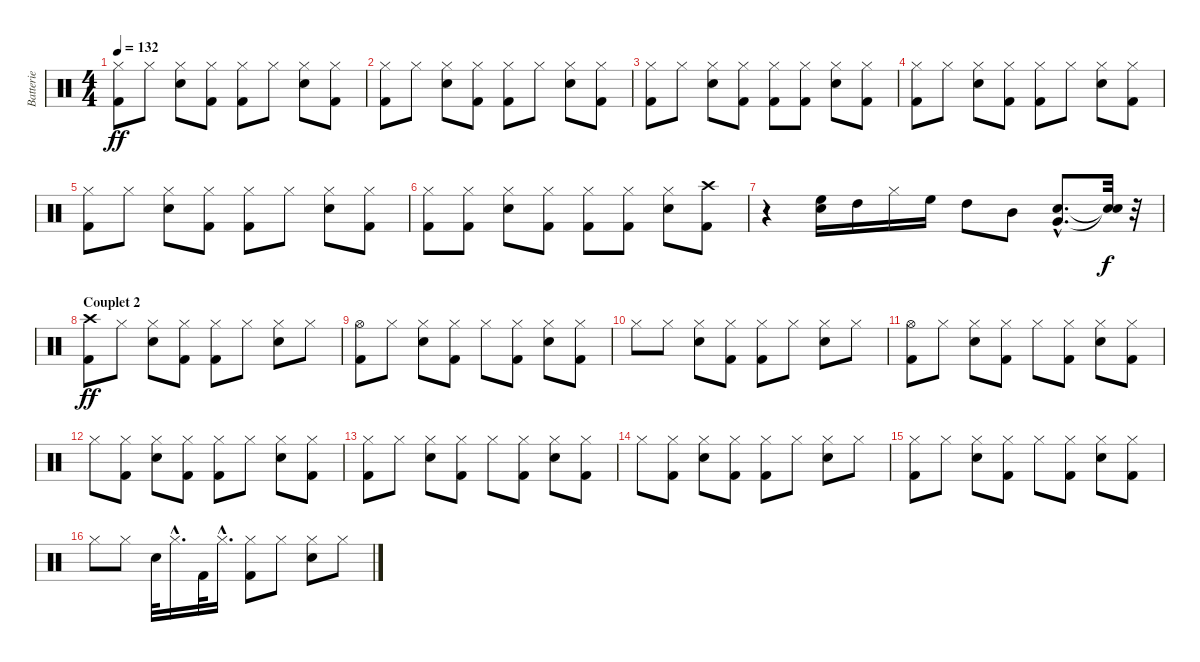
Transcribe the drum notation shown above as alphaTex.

\track ("Batterie" "Batterie") {instrument percussion}
\staff {score}
\articulation defaults
\ts (4 4)
\tempo 132
\clef neutral
\ks c
("Kick (hit) 2" "Hi-Hat (closed)").8{dy ff} "Hi-Hat (closed)".8 ("Snare (hit) 2" "Hi-Hat (closed)").8 ("Kick (hit) 2" "Hi-Hat (closed)").8 ("Kick (hit) 2" "Hi-Hat (closed)").8 "Hi-Hat (closed)".8 ("Snare (hit) 2" "Hi-Hat (closed)").8 ("Kick (hit) 2" "Hi-Hat (closed)").8 |
("Kick (hit) 2" "Hi-Hat (closed)").8 "Hi-Hat (closed)".8 ("Snare (hit) 2" "Hi-Hat (closed)").8 ("Kick (hit) 2" "Hi-Hat (closed)").8 ("Kick (hit) 2" "Hi-Hat (closed)").8 "Hi-Hat (closed)".8 ("Snare (hit) 2" "Hi-Hat (closed)").8 ("Kick (hit) 2" "Hi-Hat (closed)").8 |
("Kick (hit) 2" "Hi-Hat (closed)").8 "Hi-Hat (closed)".8 ("Snare (hit) 2" "Hi-Hat (closed)").8 ("Kick (hit) 2" "Hi-Hat (closed)").8 ("Kick (hit) 2" "Hi-Hat (closed)").8 ("Kick (hit) 2" "Hi-Hat (closed)").8 ("Snare (hit) 2" "Hi-Hat (closed)").8 ("Kick (hit) 2" "Hi-Hat (closed)").8 |
("Kick (hit) 2" "Hi-Hat (closed)").8 "Hi-Hat (closed)".8 ("Snare (hit) 2" "Hi-Hat (closed)").8 ("Kick (hit) 2" "Hi-Hat (closed)").8 ("Kick (hit) 2" "Hi-Hat (closed)").8 "Hi-Hat (closed)".8 ("Snare (hit) 2" "Hi-Hat (closed)").8 ("Kick (hit) 2" "Hi-Hat (closed)").8 |
("Kick (hit) 2" "Hi-Hat (closed)").8 "Hi-Hat (closed)".8 ("Snare (hit) 2" "Hi-Hat (closed)").8 ("Kick (hit) 2" "Hi-Hat (closed)").8 ("Kick (hit) 2" "Hi-Hat (closed)").8 "Hi-Hat (closed)".8 ("Snare (hit) 2" "Hi-Hat (closed)").8 ("Kick (hit) 2" "Hi-Hat (closed)").8 |
("Kick (hit) 2" "Hi-Hat (closed)").8 ("Kick (hit) 2" "Hi-Hat (closed)").8 ("Snare (hit) 2" "Hi-Hat (closed)").8 ("Kick (hit) 2" "Hi-Hat (closed)").8 ("Kick (hit) 2" "Hi-Hat (closed)").8 ("Kick (hit) 2" "Hi-Hat (closed)").8 ("Snare (hit) 2" "Hi-Hat (closed)").8 ("Kick (hit) 2" "Crash high (hit)").8 |
r.4 ("Snare (hit) 2" "High Floor Tom (hit)").16 "High Tom (hit)".16 "Hi-Hat (closed)".16 "High Floor Tom (hit)".16 "High Tom (hit)".8 "Mid Tom (hit)".8 ("Snare (hit) 2"{hac} "Very Low Tom (hit)"{hac}).8{d} ("Snare (hit)"{t} "Snare (hit)"{t}).32{dy f} r.32 |
\section ("" "Couplet 2")
("Kick (hit) 2" "Crash high (hit)").8{dy ff} "Hi-Hat (closed)".8 ("Snare (hit) 2" "Hi-Hat (closed)").8 ("Kick (hit) 2" "Hi-Hat (closed)").8 ("Kick (hit) 2" "Hi-Hat (closed)").8 "Hi-Hat (closed)".8 ("Snare (hit) 2" "Hi-Hat (closed)").8 "Hi-Hat (closed)".8 |
("Kick (hit) 2" "Hi-Hat (open)").8 "Hi-Hat (closed)".8 ("Snare (hit) 2" "Hi-Hat (closed)").8 ("Kick (hit) 2" "Hi-Hat (closed)").8 "Hi-Hat (closed)".8 ("Kick (hit) 2" "Hi-Hat (closed)").8 ("Snare (hit) 2" "Hi-Hat (closed)").8 ("Kick (hit) 2" "Hi-Hat (closed)").8 |
"Hi-Hat (closed)".8 "Hi-Hat (closed)".8 ("Snare (hit) 2" "Hi-Hat (closed)").8 ("Kick (hit) 2" "Hi-Hat (closed)").8 ("Kick (hit) 2" "Hi-Hat (closed)").8 "Hi-Hat (closed)".8 ("Snare (hit) 2" "Hi-Hat (closed)").8 "Hi-Hat (closed)".8 |
("Kick (hit) 2" "Hi-Hat (open)").8 "Hi-Hat (closed)".8 ("Snare (hit) 2" "Hi-Hat (closed)").8 ("Kick (hit) 2" "Hi-Hat (closed)").8 "Hi-Hat (closed)".8 ("Kick (hit) 2" "Hi-Hat (closed)").8 ("Snare (hit) 2" "Hi-Hat (closed)").8 ("Kick (hit) 2" "Hi-Hat (closed)").8 |
"Hi-Hat (closed)".8 ("Kick (hit) 2" "Hi-Hat (closed)").8 ("Snare (hit) 2" "Hi-Hat (closed)").8 ("Kick (hit) 2" "Hi-Hat (closed)").8 ("Kick (hit) 2" "Hi-Hat (closed)").8 "Hi-Hat (closed)".8 ("Snare (hit) 2" "Hi-Hat (closed)").8 ("Kick (hit) 2" "Hi-Hat (closed)").8 |
("Kick (hit) 2" "Hi-Hat (closed)").8 "Hi-Hat (closed)".8 ("Snare (hit) 2" "Hi-Hat (closed)").8 ("Kick (hit) 2" "Hi-Hat (closed)").8 "Hi-Hat (closed)".8 ("Kick (hit) 2" "Hi-Hat (closed)").8 ("Snare (hit) 2" "Hi-Hat (closed)").8 ("Kick (hit) 2" "Hi-Hat (closed)").8 |
"Hi-Hat (closed)".8 ("Kick (hit) 2" "Hi-Hat (closed)").8 ("Snare (hit) 2" "Hi-Hat (closed)").8 ("Kick (hit) 2" "Hi-Hat (closed)").8 ("Kick (hit) 2" "Hi-Hat (closed)").8 "Hi-Hat (closed)".8 ("Snare (hit) 2" "Hi-Hat (closed)").8 "Hi-Hat (closed)".8 |
("Kick (hit) 2" "Hi-Hat (closed)").8 "Hi-Hat (closed)".8 ("Snare (hit) 2" "Hi-Hat (closed)").8 ("Kick (hit) 2" "Hi-Hat (closed)").8 "Hi-Hat (closed)".8 ("Kick (hit) 2" "Hi-Hat (closed)").8 ("Snare (hit) 2" "Hi-Hat (closed)").8 ("Kick (hit) 2" "Hi-Hat (closed)").8 |
"Hi-Hat (closed)".8 "Hi-Hat (closed)".8 "Snare (hit) 2".32 "Hi-Hat (closed)"{hac}.16{d} "Kick (hit) 2".32 "Hi-Hat (closed)"{hac}.16{d} ("Kick (hit) 2" "Hi-Hat (closed)").8 "Hi-Hat (closed)".8 ("Snare (hit) 2" "Hi-Hat (closed)").8 "Hi-Hat (closed)".8
